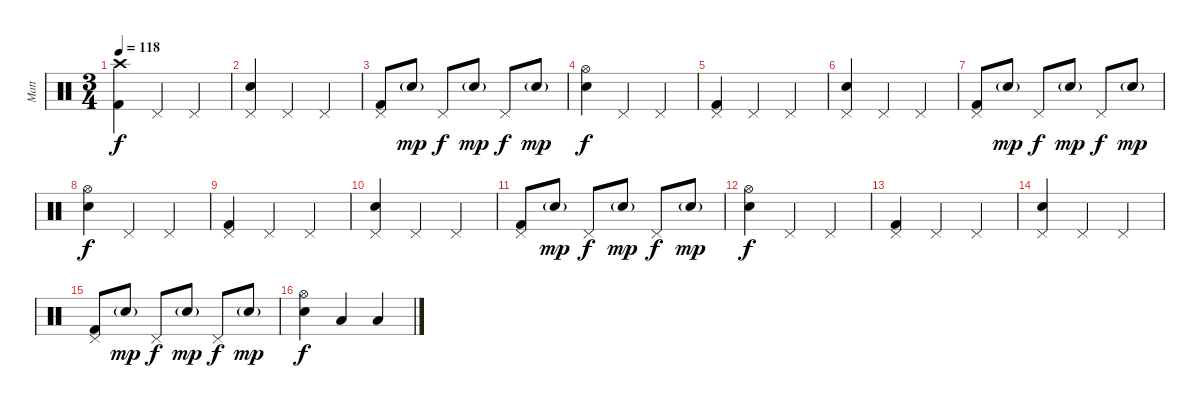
\track ("Matt" "Matt") {instrument percussion}
\staff {score}
\articulation defaults
\ts (3 4)
\tempo 118
\clef neutral
\ks c
("Crash high (hit)" "Kick (hit) 2").4{dy f} "Pedal Hi-Hat (hit)".4 "Pedal Hi-Hat (hit)".4 |
("Pedal Hi-Hat (hit)" "Snare (hit) 2").4 "Pedal Hi-Hat (hit)".4 "Pedal Hi-Hat (hit)".4 |
("Pedal Hi-Hat (hit)" "Kick (hit) 2").8 "Snare (hit) 2"{g}.8{dy mp} "Pedal Hi-Hat (hit)".8{dy f} "Snare (hit) 2"{g}.8{dy mp} "Pedal Hi-Hat (hit)".8{dy f} "Snare (hit) 2"{g}.8{dy mp} |
("Hi-Hat (open)" "Snare (hit) 2").4{dy f} "Pedal Hi-Hat (hit)".4 "Pedal Hi-Hat (hit)".4 |
("Pedal Hi-Hat (hit)" "Kick (hit) 2").4 "Pedal Hi-Hat (hit)".4 "Pedal Hi-Hat (hit)".4 |
("Pedal Hi-Hat (hit)" "Snare (hit) 2").4 "Pedal Hi-Hat (hit)".4 "Pedal Hi-Hat (hit)".4 |
("Pedal Hi-Hat (hit)" "Kick (hit) 2").8 "Snare (hit) 2"{g}.8{dy mp} "Pedal Hi-Hat (hit)".8{dy f} "Snare (hit) 2"{g}.8{dy mp} "Pedal Hi-Hat (hit)".8{dy f} "Snare (hit) 2"{g}.8{dy mp} |
("Hi-Hat (open)" "Snare (hit) 2").4{dy f} "Pedal Hi-Hat (hit)".4 "Pedal Hi-Hat (hit)".4 |
("Pedal Hi-Hat (hit)" "Kick (hit) 2").4 "Pedal Hi-Hat (hit)".4 "Pedal Hi-Hat (hit)".4 |
("Pedal Hi-Hat (hit)" "Snare (hit) 2").4 "Pedal Hi-Hat (hit)".4 "Pedal Hi-Hat (hit)".4 |
("Pedal Hi-Hat (hit)" "Kick (hit) 2").8 "Snare (hit) 2"{g}.8{dy mp} "Pedal Hi-Hat (hit)".8{dy f} "Snare (hit) 2"{g}.8{dy mp} "Pedal Hi-Hat (hit)".8{dy f} "Snare (hit) 2"{g}.8{dy mp} |
("Hi-Hat (open)" "Snare (hit) 2").4{dy f} "Pedal Hi-Hat (hit)".4 "Pedal Hi-Hat (hit)".4 |
("Pedal Hi-Hat (hit)" "Kick (hit) 2").4 "Pedal Hi-Hat (hit)".4 "Pedal Hi-Hat (hit)".4 |
("Pedal Hi-Hat (hit)" "Snare (hit) 2").4 "Pedal Hi-Hat (hit)".4 "Pedal Hi-Hat (hit)".4 |
("Pedal Hi-Hat (hit)" "Kick (hit) 2").8 "Electric Snare (hit)"{g}.8{dy mp} "Pedal Hi-Hat (hit)".8{dy f} "Snare (hit) 2"{g}.8{dy mp} "Pedal Hi-Hat (hit)".8{dy f} "Snare (hit) 2"{g}.8{dy mp} |
("Hi-Hat (open)" "Snare (hit) 2").4{dy f} "Low Tom (hit)".4 "Low Floor Tom (hit)".4
